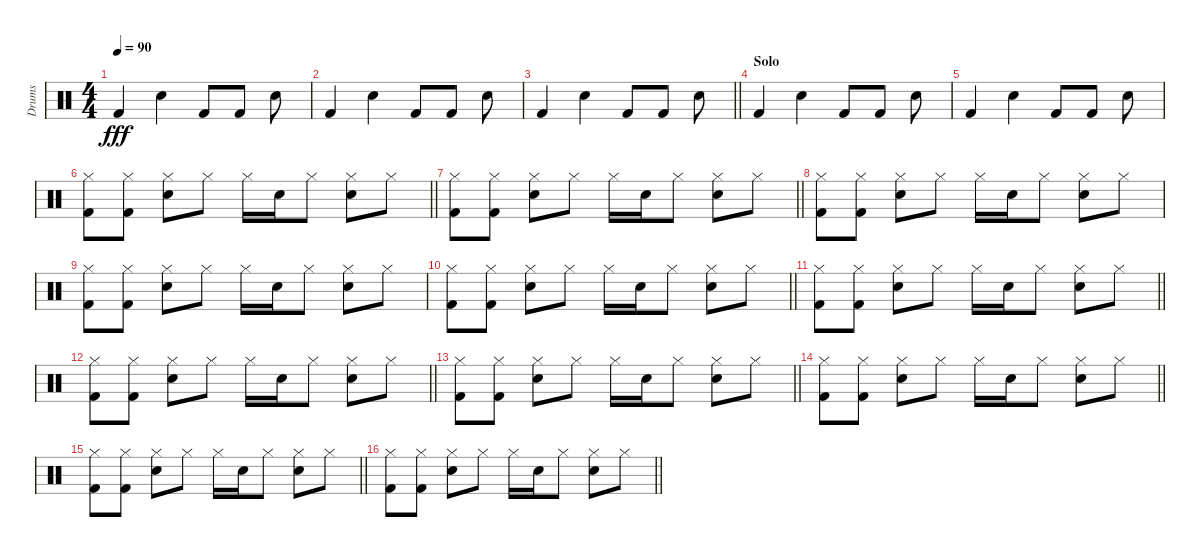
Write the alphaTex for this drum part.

\track ("Drums" "Drums") {instrument percussion}
\staff {score}
\articulation defaults
\ts (4 4)
\tempo 90
\clef neutral
\ks c "Kick (hit) 2".4{dy fff} "Snare (hit) 2".4 "Kick (hit) 2".8 "Kick (hit) 2".8 "Snare (hit) 2".8
|
"Kick (hit) 2".4 "Snare (hit) 2".4 "Kick (hit) 2".8 "Kick (hit) 2".8 "Snare (hit) 2".8 |
\barLineRight lightlight "Kick (hit) 2".4 "Snare (hit) 2".4 "Kick (hit) 2".8 "Kick (hit) 2".8 "Snare (hit) 2".8
|
\section ("" "Solo")
"Kick (hit) 2".4 "Snare (hit) 2".4 "Kick (hit) 2".8 "Kick (hit) 2".8 "Snare (hit) 2".8 |
"Kick (hit) 2".4 "Snare (hit) 2".4 "Kick (hit) 2".8 "Kick (hit) 2".8 "Snare (hit) 2".8 |
\barLineRight lightlight
("Hi-Hat (closed)" "Kick (hit) 2").8 ("Hi-Hat (closed)" "Kick (hit) 2").8 ("Hi-Hat (closed)" "Snare (hit) 2").8 "Hi-Hat (closed)".8 "Hi-Hat (closed)".16 "Snare (hit) 2".16 "Hi-Hat (closed)".8 ("Hi-Hat (closed)" "Snare (hit) 2").8 "Hi-Hat (closed)".8 |
\barLineRight lightlight
("Hi-Hat (closed)" "Kick (hit) 2").8 ("Hi-Hat (closed)" "Kick (hit) 2").8 ("Hi-Hat (closed)" "Snare (hit) 2").8 "Hi-Hat (closed)".8 "Hi-Hat (closed)".16 "Snare (hit) 2".16 "Hi-Hat (closed)".8 ("Hi-Hat (closed)" "Snare (hit) 2").8 "Hi-Hat (closed)".8 |
("Hi-Hat (closed)" "Kick (hit) 2").8 ("Hi-Hat (closed)" "Kick (hit) 2").8 ("Hi-Hat (closed)" "Snare (hit) 2").8 "Hi-Hat (closed)".8 "Hi-Hat (closed)".16 "Snare (hit) 2".16 "Hi-Hat (closed)".8 ("Hi-Hat (closed)" "Snare (hit) 2").8 "Hi-Hat (closed)".8 |
("Hi-Hat (closed)" "Kick (hit) 2").8 ("Hi-Hat (closed)" "Kick (hit) 2").8 ("Hi-Hat (closed)" "Snare (hit) 2").8 "Hi-Hat (closed)".8 "Hi-Hat (closed)".16 "Snare (hit) 2".16 "Hi-Hat (closed)".8 ("Hi-Hat (closed)" "Snare (hit) 2").8 "Hi-Hat (closed)".8 |
\barLineRight lightlight
("Hi-Hat (closed)" "Kick (hit) 2").8 ("Hi-Hat (closed)" "Kick (hit) 2").8 ("Hi-Hat (closed)" "Snare (hit) 2").8 "Hi-Hat (closed)".8 "Hi-Hat (closed)".16 "Snare (hit) 2".16 "Hi-Hat (closed)".8 ("Hi-Hat (closed)" "Snare (hit) 2").8 "Hi-Hat (closed)".8 |
\barLineRight lightlight
("Hi-Hat (closed)" "Kick (hit) 2").8 ("Hi-Hat (closed)" "Kick (hit) 2").8 ("Hi-Hat (closed)" "Snare (hit) 2").8 "Hi-Hat (closed)".8 "Hi-Hat (closed)".16 "Snare (hit) 2".16 "Hi-Hat (closed)".8 ("Hi-Hat (closed)" "Snare (hit) 2").8 "Hi-Hat (closed)".8 |
\barLineRight lightlight
("Hi-Hat (closed)" "Kick (hit) 2").8 ("Hi-Hat (closed)" "Kick (hit) 2").8 ("Hi-Hat (closed)" "Snare (hit) 2").8 "Hi-Hat (closed)".8 "Hi-Hat (closed)".16 "Snare (hit) 2".16 "Hi-Hat (closed)".8 ("Hi-Hat (closed)" "Snare (hit) 2").8 "Hi-Hat (closed)".8 |
\barLineRight lightlight
("Hi-Hat (closed)" "Kick (hit) 2").8 ("Hi-Hat (closed)" "Kick (hit) 2").8 ("Hi-Hat (closed)" "Snare (hit) 2").8 "Hi-Hat (closed)".8 "Hi-Hat (closed)".16 "Snare (hit) 2".16 "Hi-Hat (closed)".8 ("Hi-Hat (closed)" "Snare (hit) 2").8 "Hi-Hat (closed)".8 |
\barLineRight lightlight
("Hi-Hat (closed)" "Kick (hit) 2").8 ("Hi-Hat (closed)" "Kick (hit) 2").8 ("Hi-Hat (closed)" "Snare (hit) 2").8 "Hi-Hat (closed)".8 "Hi-Hat (closed)".16 "Snare (hit) 2".16 "Hi-Hat (closed)".8 ("Hi-Hat (closed)" "Snare (hit) 2").8 "Hi-Hat (closed)".8 |
\barLineRight lightlight
("Hi-Hat (closed)" "Kick (hit) 2").8 ("Hi-Hat (closed)" "Kick (hit) 2").8 ("Hi-Hat (closed)" "Snare (hit) 2").8 "Hi-Hat (closed)".8 "Hi-Hat (closed)".16 "Snare (hit) 2".16 "Hi-Hat (closed)".8 ("Hi-Hat (closed)" "Snare (hit) 2").8 "Hi-Hat (closed)".8 |
\barLineRight lightlight
("Hi-Hat (closed)" "Kick (hit) 2").8 ("Hi-Hat (closed)" "Kick (hit) 2").8 ("Hi-Hat (closed)" "Snare (hit) 2").8 "Hi-Hat (closed)".8 "Hi-Hat (closed)".16 "Snare (hit) 2".16 "Hi-Hat (closed)".8 ("Hi-Hat (closed)" "Snare (hit) 2").8 "Hi-Hat (closed)".8
